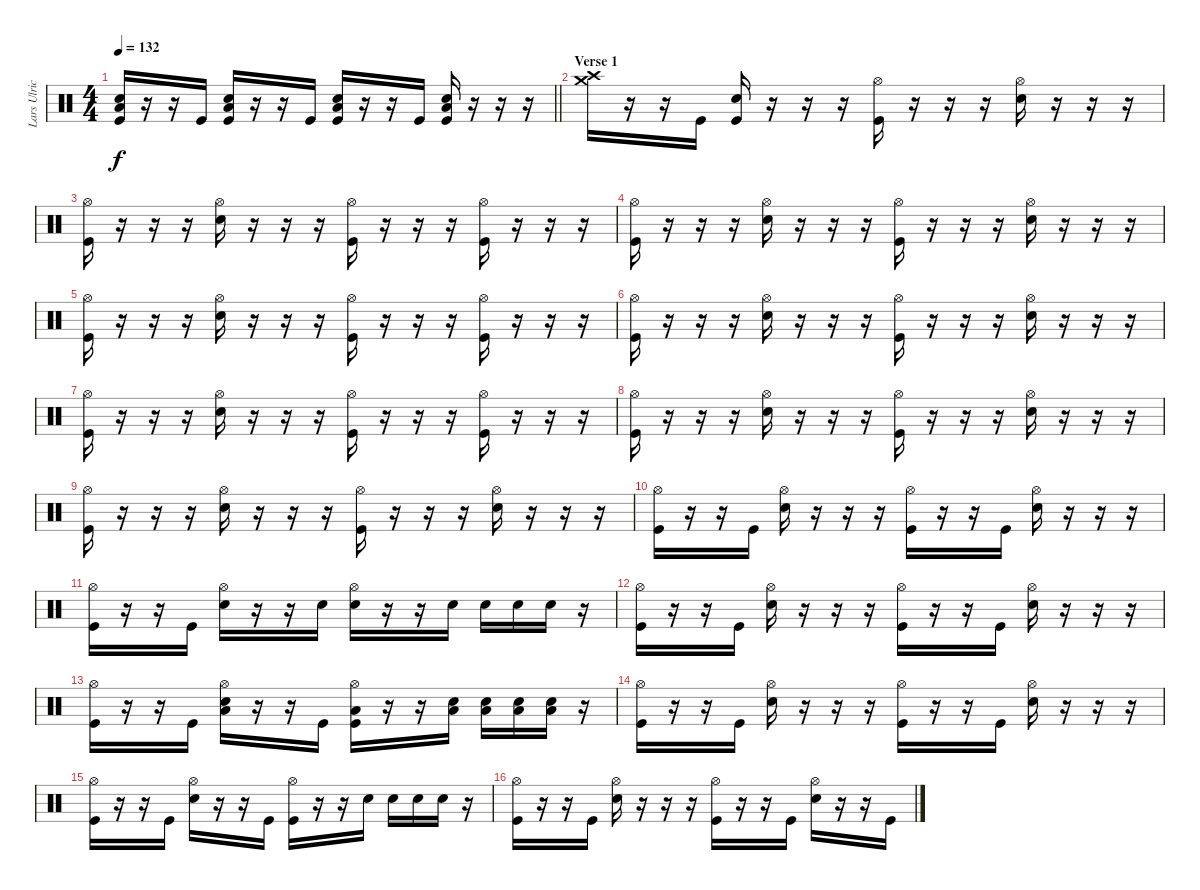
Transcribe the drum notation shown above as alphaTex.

\track ("Lars Ulrich" "Lars Ulric") {instrument percussion}
\staff {score}
\articulation defaults
\ts (4 4)
\tempo 132
\clef neutral
\barLineRight lightlight
\ks c
("Kick (hit)" "Snare (hit) 2" "Low Floor Tom (hit)").16{dy f} r.16 r.16 "Kick (hit)".16 ("Kick (hit)" "Snare (hit) 2" "Low Floor Tom (hit)").16 r.16 r.16 "Kick (hit)".16 ("Kick (hit)" "Snare (hit) 2" "Low Floor Tom (hit)").16 r.16 r.16 "Kick (hit)".16 ("Kick (hit)" "Snare (hit) 2" "Low Floor Tom (hit)").16 r.16 r.16 r.16 |
\section ("" "Verse 1")
("Crash medium (hit)" "Crash high (hit)").16 r.16 r.16 "Kick (hit)".16 ("Kick (hit)" "Snare (hit) 2").16 r.16 r.16 r.16 ("Hi-Hat (open)" "Kick (hit)").16 r.16 r.16 r.16 ("Hi-Hat (open)" "Snare (hit) 2").16 r.16 r.16 r.16 |
("Hi-Hat (open)" "Kick (hit)").16 r.16 r.16 r.16 ("Hi-Hat (open)" "Snare (hit) 2").16 r.16 r.16 r.16 ("Hi-Hat (open)" "Kick (hit)").16 r.16 r.16 r.16 ("Hi-Hat (open)" "Kick (hit)").16 r.16 r.16 r.16 |
("Hi-Hat (open)" "Kick (hit)").16 r.16 r.16 r.16 ("Hi-Hat (open)" "Snare (hit) 2").16 r.16 r.16 r.16 ("Hi-Hat (open)" "Kick (hit)").16 r.16 r.16 r.16 ("Hi-Hat (open)" "Snare (hit) 2").16 r.16 r.16 r.16 |
("Hi-Hat (open)" "Kick (hit)").16 r.16 r.16 r.16 ("Hi-Hat (open)" "Snare (hit) 2").16 r.16 r.16 r.16 ("Hi-Hat (open)" "Kick (hit)").16 r.16 r.16 r.16 ("Hi-Hat (open)" "Kick (hit)").16 r.16 r.16 r.16 |
("Hi-Hat (open)" "Kick (hit)").16 r.16 r.16 r.16 ("Hi-Hat (open)" "Snare (hit) 2").16 r.16 r.16 r.16 ("Hi-Hat (open)" "Kick (hit)").16 r.16 r.16 r.16 ("Hi-Hat (open)" "Snare (hit) 2").16 r.16 r.16 r.16 |
("Hi-Hat (open)" "Kick (hit)").16 r.16 r.16 r.16 ("Hi-Hat (open)" "Snare (hit) 2").16 r.16 r.16 r.16 ("Hi-Hat (open)" "Kick (hit)").16 r.16 r.16 r.16 ("Hi-Hat (open)" "Kick (hit)").16 r.16 r.16 r.16 |
("Hi-Hat (open)" "Kick (hit)").16 r.16 r.16 r.16 ("Hi-Hat (open)" "Snare (hit) 2").16 r.16 r.16 r.16 ("Hi-Hat (open)" "Kick (hit)").16 r.16 r.16 r.16 ("Hi-Hat (open)" "Snare (hit) 2").16 r.16 r.16 r.16 |
("Hi-Hat (open)" "Kick (hit)").16 r.16 r.16 r.16 ("Hi-Hat (open)" "Snare (hit) 2").16 r.16 r.16 r.16 ("Hi-Hat (open)" "Kick (hit)").16 r.16 r.16 r.16 ("Hi-Hat (open)" "Snare (hit) 2").16 r.16 r.16 r.16 |
("Hi-Hat (open)" "Kick (hit)").16 r.16 r.16 "Kick (hit)".16 ("Hi-Hat (open)" "Snare (hit) 2").16 r.16 r.16 r.16 ("Hi-Hat (open)" "Kick (hit)").16 r.16 r.16 "Kick (hit)".16 ("Hi-Hat (open)" "Snare (hit) 2").16 r.16 r.16 r.16 |
("Hi-Hat (open)" "Kick (hit)").16 r.16 r.16 "Kick (hit)".16 ("Hi-Hat (open)" "Snare (hit) 2").16 r.16 r.16 "Snare (hit) 2".16 ("Hi-Hat (open)" "Snare (hit) 2").16 r.16 r.16 "Snare (hit) 2".16 "Snare (hit) 2".16 "Snare (hit) 2".16 "Snare (hit) 2".16 r.16 |
("Hi-Hat (open)" "Kick (hit)").16 r.16 r.16 "Kick (hit)".16 ("Hi-Hat (open)" "Snare (hit) 2").16 r.16 r.16 r.16 ("Hi-Hat (open)" "Kick (hit)").16 r.16 r.16 "Kick (hit)".16 ("Hi-Hat (open)" "Snare (hit) 2").16 r.16 r.16 r.16 |
("Hi-Hat (open)" "Kick (hit)").16 r.16 r.16 "Kick (hit)".16 ("Hi-Hat (open)" "Snare (hit) 2" "Low Floor Tom (hit)").16 r.16 r.16 "Kick (hit)".16 ("Hi-Hat (open)" "Kick (hit)" "Low Floor Tom (hit)").16 r.16 r.16 ("Snare (hit) 2" "Low Floor Tom (hit)").16 ("Snare (hit) 2" "Low Floor Tom (hit)").16 ("Snare (hit) 2" "Low Floor Tom (hit)").16 ("Snare (hit) 2" "Low Floor Tom (hit)").16 r.16 |
("Hi-Hat (open)" "Kick (hit)").16 r.16 r.16 "Kick (hit)".16 ("Hi-Hat (open)" "Snare (hit) 2").16 r.16 r.16 r.16 ("Hi-Hat (open)" "Kick (hit)").16 r.16 r.16 "Kick (hit)".16 ("Hi-Hat (open)" "Snare (hit) 2").16 r.16 r.16 r.16 |
("Hi-Hat (open)" "Kick (hit)").16 r.16 r.16 "Kick (hit)".16 ("Hi-Hat (open)" "Snare (hit) 2").16 r.16 r.16 "Kick (hit)".16 ("Hi-Hat (open)" "Kick (hit)").16 r.16 r.16 "Snare (hit) 2".16 "Snare (hit) 2".16 "Snare (hit) 2".16 "Snare (hit) 2".16 r.16 |
("Hi-Hat (open)" "Kick (hit)").16 r.16 r.16 "Kick (hit)".16 ("Hi-Hat (open)" "Snare (hit) 2").16 r.16 r.16 r.16 ("Hi-Hat (open)" "Kick (hit)").16 r.16 r.16 "Kick (hit)".16 ("Hi-Hat (open)" "Snare (hit) 2").16 r.16 r.16 "Kick (hit)".16
